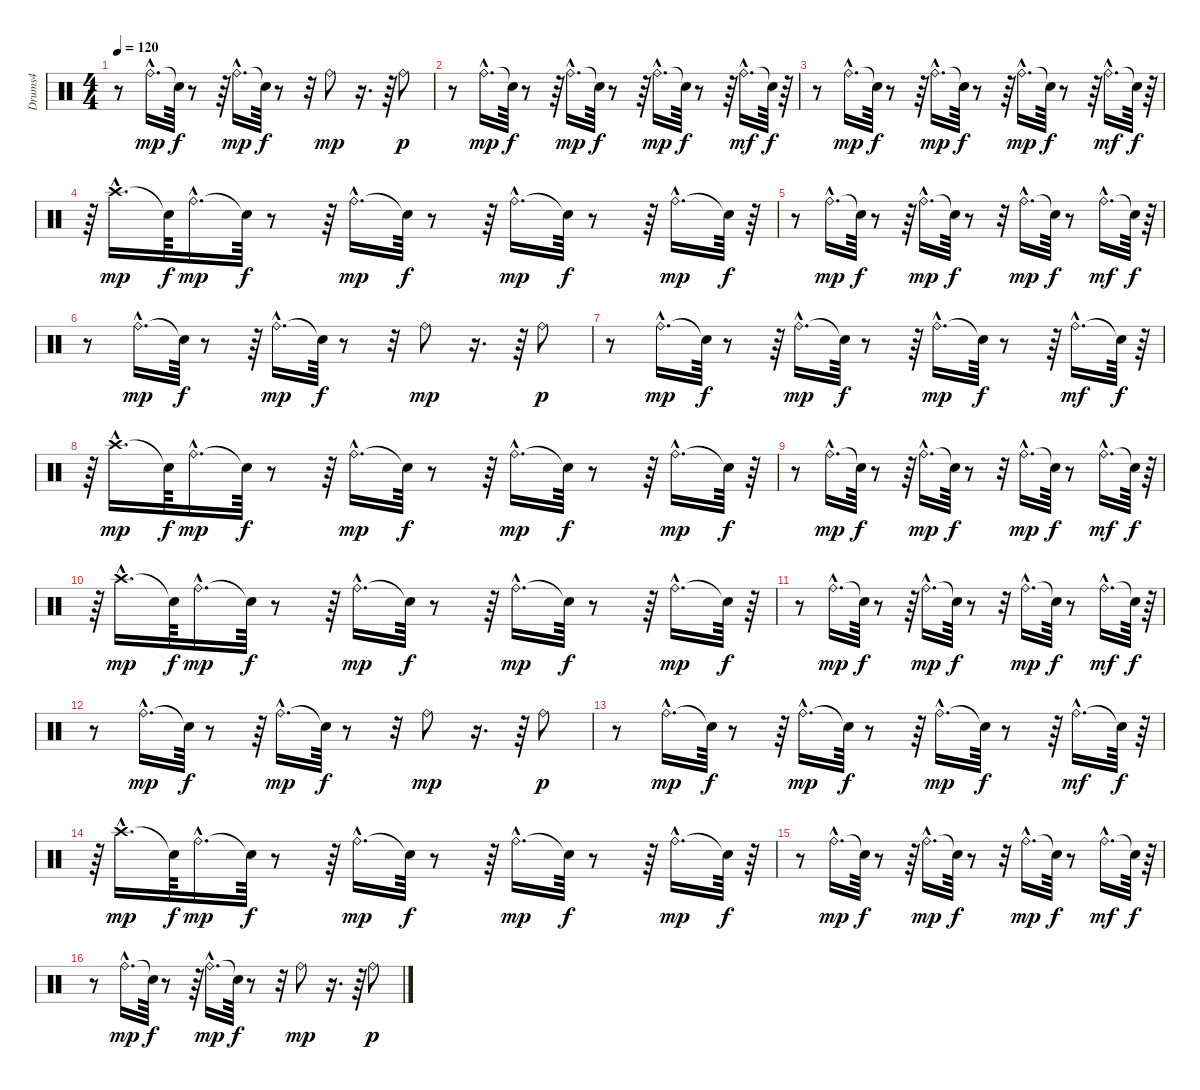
\track ("Drums4" "Drums4") {instrument percussion}
\staff {score}
\articulation defaults
\ts (4 4)
\tempo 120
\clef neutral
\ks c
r.8{dy f} "Ride (bell)"{hac}.16{d dy mp} "Snare (hit)"{t}.64{dy f} r.8 r.64 "Ride (bell)"{hac}.16{d dy mp} "Snare (hit)"{t}.64{dy f} r.8 r.32 "Ride (bell)".8{dy mp} r.16{d} r.64 "Ride (bell)".8{dy p} |
r.8 "Ride (bell)"{hac}.16{d dy mp} "Snare (hit)"{t}.64{dy f} r.8 r.64 "Ride (bell)"{hac}.16{d dy mp} "Snare (hit)"{t}.64{dy f} r.8 r.64 "Ride (bell)"{hac}.16{d dy mp} "Snare (hit)"{t}.64{dy f} r.8 r.64 "Ride (bell)"{hac}.16{d dy mf} "Snare (hit)"{t}.64{dy f} r.64 |
r.8 "Ride (bell)"{hac}.16{d dy mp} "Snare (hit)"{t}.64{dy f} r.8 r.64 "Ride (bell)"{hac}.16{d dy mp} "Snare (hit)"{t}.64{dy f} r.8 r.64 "Ride (bell)"{hac}.16{d dy mp} "Snare (hit)"{t}.64{dy f} r.8 r.64 "Ride (bell)"{hac}.16{d dy mf} "Snare (hit)"{t}.64{dy f} r.64 |
r.64 "Crash high (hit)"{hac}.16{d dy mp} "Snare (hit)"{t}.64{dy f} "Ride (bell)"{hac}.16{d dy mp} "Snare (hit)"{t}.64{dy f} r.8 r.64 "Ride (bell)"{hac}.16{d dy mp} "Snare (hit)"{t}.64{dy f} r.8 r.64 "Ride (bell)"{hac}.16{d dy mp} "Snare (hit)"{t}.64{dy f} r.8 r.64 "Ride (bell)"{hac}.16{d dy mp} "Snare (hit)"{t}.64{dy f} r.64 |
r.8 "Ride (bell)"{hac}.16{d dy mp} "Snare (hit)"{t}.64{dy f} r.8 r.64 "Ride (bell)"{hac}.16{d dy mp} "Snare (hit)"{t}.64{dy f} r.8 r.32 "Ride (bell)"{hac}.16{d dy mp} "Snare (hit)"{t}.64{dy f} r.8 "Ride (bell)"{hac}.16{d dy mf} "Snare (hit)"{t}.64{dy f} r.64 |
r.8 "Ride (bell)"{hac}.16{d dy mp} "Snare (hit)"{t}.64{dy f} r.8 r.64 "Ride (bell)"{hac}.16{d dy mp} "Snare (hit)"{t}.64{dy f} r.8 r.32 "Ride (bell)".8{dy mp} r.16{d} r.64 "Ride (bell)".8{dy p} |
r.8 "Ride (bell)"{hac}.16{d dy mp} "Snare (hit)"{t}.64{dy f} r.8 r.64 "Ride (bell)"{hac}.16{d dy mp} "Snare (hit)"{t}.64{dy f} r.8 r.64 "Ride (bell)"{hac}.16{d dy mp} "Snare (hit)"{t}.64{dy f} r.8 r.64 "Ride (bell)"{hac}.16{d dy mf} "Snare (hit)"{t}.64{dy f} r.64 |
r.64 "Crash high (hit)"{hac}.16{d dy mp} "Snare (hit)"{t}.64{dy f} "Ride (bell)"{hac}.16{d dy mp} "Snare (hit)"{t}.64{dy f} r.8 r.64 "Ride (bell)"{hac}.16{d dy mp} "Snare (hit)"{t}.64{dy f} r.8 r.64 "Ride (bell)"{hac}.16{d dy mp} "Snare (hit)"{t}.64{dy f} r.8 r.64 "Ride (bell)"{hac}.16{d dy mp} "Snare (hit)"{t}.64{dy f} r.64 |
r.8 "Ride (bell)"{hac}.16{d dy mp} "Snare (hit)"{t}.64{dy f} r.8 r.64 "Ride (bell)"{hac}.16{d dy mp} "Snare (hit)"{t}.64{dy f} r.8 r.32 "Ride (bell)"{hac}.16{d dy mp} "Snare (hit)"{t}.64{dy f} r.8 "Ride (bell)"{hac}.16{d dy mf} "Snare (hit)"{t}.64{dy f} r.64 |
r.64 "Crash high (hit)"{hac}.16{d dy mp} "Snare (hit)"{t}.64{dy f} "Ride (bell)"{hac}.16{d dy mp} "Snare (hit)"{t}.64{dy f} r.8 r.64 "Ride (bell)"{hac}.16{d dy mp} "Snare (hit)"{t}.64{dy f} r.8 r.64 "Ride (bell)"{hac}.16{d dy mp} "Snare (hit)"{t}.64{dy f} r.8 r.64 "Ride (bell)"{hac}.16{d dy mp} "Snare (hit)"{t}.64{dy f} r.64 |
r.8 "Ride (bell)"{hac}.16{d dy mp} "Snare (hit)"{t}.64{dy f} r.8 r.64 "Ride (bell)"{hac}.16{d dy mp} "Snare (hit)"{t}.64{dy f} r.8 r.32 "Ride (bell)"{hac}.16{d dy mp} "Snare (hit)"{t}.64{dy f} r.8 "Ride (bell)"{hac}.16{d dy mf} "Snare (hit)"{t}.64{dy f} r.64 |
r.8 "Ride (bell)"{hac}.16{d dy mp} "Snare (hit)"{t}.64{dy f} r.8 r.64 "Ride (bell)"{hac}.16{d dy mp} "Snare (hit)"{t}.64{dy f} r.8 r.32 "Ride (bell)".8{dy mp} r.16{d} r.64 "Ride (bell)".8{dy p} |
r.8 "Ride (bell)"{hac}.16{d dy mp} "Snare (hit)"{t}.64{dy f} r.8 r.64 "Ride (bell)"{hac}.16{d dy mp} "Snare (hit)"{t}.64{dy f} r.8 r.64 "Ride (bell)"{hac}.16{d dy mp} "Snare (hit)"{t}.64{dy f} r.8 r.64 "Ride (bell)"{hac}.16{d dy mf} "Snare (hit)"{t}.64{dy f} r.64 |
r.64 "Crash high (hit)"{hac}.16{d dy mp} "Snare (hit)"{t}.64{dy f} "Ride (bell)"{hac}.16{d dy mp} "Snare (hit)"{t}.64{dy f} r.8 r.64 "Ride (bell)"{hac}.16{d dy mp} "Snare (hit)"{t}.64{dy f} r.8 r.64 "Ride (bell)"{hac}.16{d dy mp} "Snare (hit)"{t}.64{dy f} r.8 r.64 "Ride (bell)"{hac}.16{d dy mp} "Snare (hit)"{t}.64{dy f} r.64 |
r.8 "Ride (bell)"{hac}.16{d dy mp} "Snare (hit)"{t}.64{dy f} r.8 r.64 "Ride (bell)"{hac}.16{d dy mp} "Snare (hit)"{t}.64{dy f} r.8 r.32 "Ride (bell)"{hac}.16{d dy mp} "Snare (hit)"{t}.64{dy f} r.8 "Ride (bell)"{hac}.16{d dy mf} "Snare (hit)"{t}.64{dy f} r.64 |
r.8 "Ride (bell)"{hac}.16{d dy mp} "Snare (hit)"{t}.64{dy f} r.8 r.64 "Ride (bell)"{hac}.16{d dy mp} "Snare (hit)"{t}.64{dy f} r.8 r.32 "Ride (bell)".8{dy mp} r.16{d} r.64 "Ride (bell)".8{dy p}
